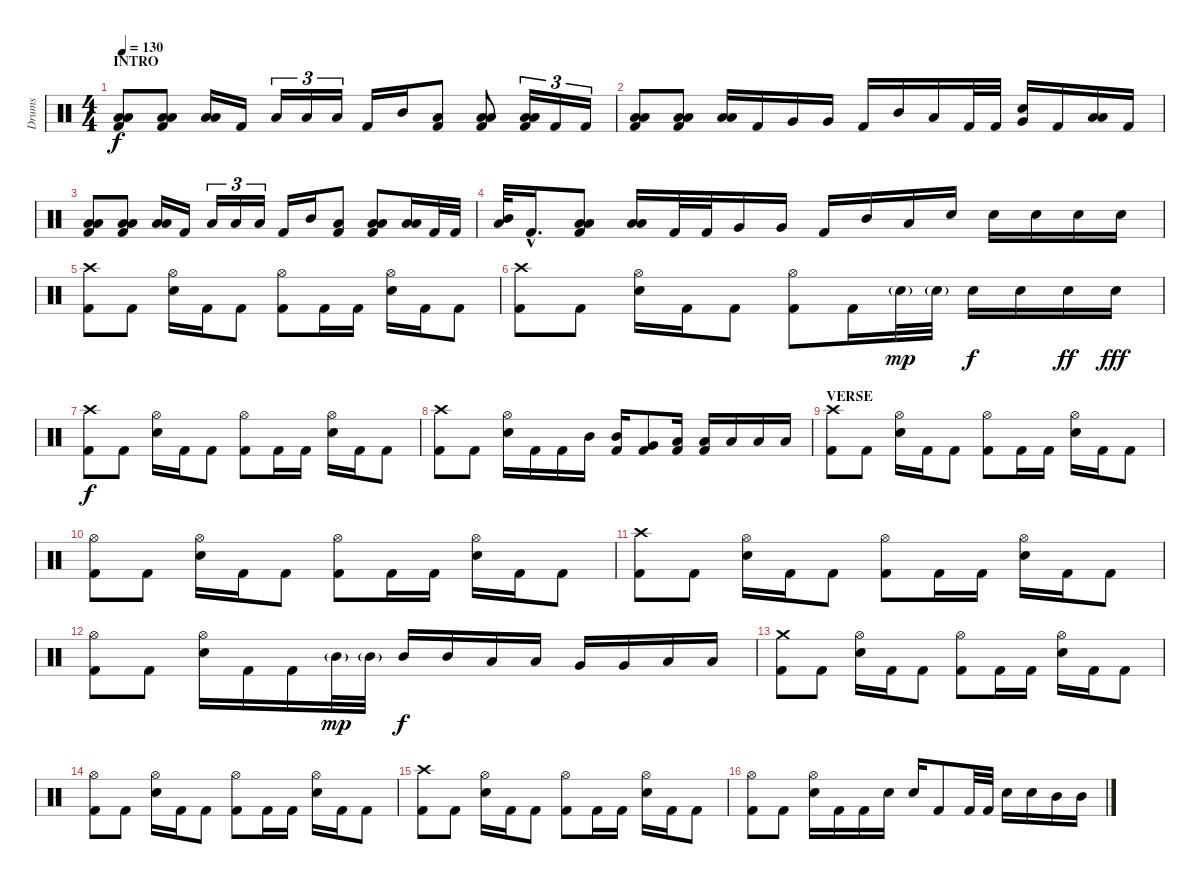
\track ("Drums" "Drums") {instrument percussion}
\staff {score}
\articulation defaults
\ts (4 4)
\section ("" "INTRO")
\tempo 130
\clef neutral
\ks c
("Low Floor Tom (hit)" "Low Tom (hit)" "Kick (hit) 2").8{dy f} ("Low Floor Tom (hit)" "Low Tom (hit)" "Kick (hit) 2").8 ("Low Floor Tom (hit)" "Low Tom (hit)").16 "Kick (hit) 2".16 "Low Tom (hit)".16{tu (3 2)} "Low Tom (hit)".16{tu (3 2)} "Low Tom (hit)".16{tu (3 2)} "Kick (hit) 2".16 "Mid Tom (hit)".16 ("Low Tom (hit)" "Kick (hit) 2").8 ("Low Floor Tom (hit)" "Low Tom (hit)" "Kick (hit) 2").8 ("Low Floor Tom (hit)" "Low Tom (hit)" "Kick (hit) 2").16{tu (3 2)} "Kick (hit) 2".16{tu (3 2)} "Kick (hit) 2".16{tu (3 2)} |
("Low Floor Tom (hit)" "Low Tom (hit)" "Kick (hit) 2").8 ("Low Floor Tom (hit)" "Low Tom (hit)" "Kick (hit) 2").8 ("Low Floor Tom (hit)" "Low Tom (hit)").16 "Kick (hit) 2".16 "Very Low Tom (hit)".16 "Very Low Tom (hit)".16 "Kick (hit) 2".16 "Mid Tom (hit)".16 "Low Tom (hit)".16 "Kick (hit) 2".32 "Kick (hit) 2".32 ("Very Low Tom (hit)" "Electric Snare (hit)").16 "Kick (hit) 2".16 ("Low Floor Tom (hit)" "Low Tom (hit)").16 "Kick (hit) 2".16 |
("Low Floor Tom (hit)" "Low Tom (hit)" "Kick (hit) 2").8 ("Low Floor Tom (hit)" "Low Tom (hit)" "Kick (hit) 2").8 ("Low Floor Tom (hit)" "Low Tom (hit)").16 "Kick (hit) 2".16 "Low Tom (hit)".16{tu (3 2)} "Low Tom (hit)".16{tu (3 2)} "Low Tom (hit)".16{tu (3 2)} "Kick (hit) 2".16 "Mid Tom (hit)".16 ("Low Tom (hit)" "Kick (hit) 2").8 ("Low Floor Tom (hit)" "Low Tom (hit)" "Kick (hit) 2").8 ("Low Floor Tom (hit)" "Low Tom (hit)").16 "Kick (hit) 2".32 "Kick (hit) 2".32 |
("Low Tom (hit)" "Mid Tom (hit)").32{bd 120} "Kick (hit) 2"{hac}.16{d} ("Low Floor Tom (hit)" "Low Tom (hit)" "Kick (hit) 2").8 ("Low Floor Tom (hit)" "Low Tom (hit)").16 "Kick (hit) 2".32 "Kick (hit) 2".32 "Very Low Tom (hit)".16 "Very Low Tom (hit)".16 "Kick (hit) 2".16 "Mid Tom (hit)".16 "Low Tom (hit)".16 "Electric Snare (hit)".16 "Electric Snare (hit)".16 "Electric Snare (hit)".16 "Electric Snare (hit)".16 "Electric Snare (hit)".16 |
("Crash high (hit)" "Kick (hit) 2").8 "Kick (hit) 2".8 ("Hi-Hat (open)" "Electric Snare (hit)").16 "Kick (hit) 2".16 "Kick (hit) 2".8 ("Hi-Hat (open)" "Kick (hit) 2").8 "Kick (hit) 2".16 "Kick (hit) 2".16 ("Hi-Hat (open)" "Electric Snare (hit)").16 "Kick (hit) 2".16 "Kick (hit) 2".8 |
("Crash high (hit)" "Kick (hit) 2").8 "Kick (hit) 2".8 ("Hi-Hat (open)" "Electric Snare (hit)").16 "Kick (hit) 2".16 "Kick (hit) 2".8 ("Hi-Hat (open)" "Kick (hit) 2").8 "Kick (hit) 2".16 "Electric Snare (hit)"{g}.32{dy mp} "Electric Snare (hit)"{g}.32 "Electric Snare (hit)".16{dy f} "Electric Snare (hit)".16 "Electric Snare (hit)".16{dy ff} "Electric Snare (hit)".16{dy fff} |
("Crash high (hit)" "Kick (hit) 2").8{dy f} "Kick (hit) 2".8 ("Hi-Hat (open)" "Electric Snare (hit)").16 "Kick (hit) 2".16 "Kick (hit) 2".8 ("Hi-Hat (open)" "Kick (hit) 2").8 "Kick (hit) 2".16 "Kick (hit) 2".16 ("Hi-Hat (open)" "Electric Snare (hit)").16 "Kick (hit) 2".16 "Kick (hit) 2".8 |
("Crash high (hit)" "Kick (hit) 2").8 "Kick (hit) 2".8 ("Hi-Hat (open)" "Electric Snare (hit)").16 "Kick (hit) 2".16 "Kick (hit) 2".16 "Mid Tom (hit)".16 ("Mid Tom (hit)" "Kick (hit) 2").16 ("Very Low Tom (hit)" "Kick (hit) 2").8 ("Low Tom (hit)" "Kick (hit) 2").16 ("Low Floor Tom (hit)" "Kick (hit) 2").16 "Low Floor Tom (hit)".16 "Low Floor Tom (hit)".16 "Low Floor Tom (hit)".16 |
\section ("" "VERSE")
("Crash high (hit)" "Kick (hit) 2").8 "Kick (hit) 2".8 ("Hi-Hat (open)" "Electric Snare (hit)").16 "Kick (hit) 2".16 "Kick (hit) 2".8 ("Hi-Hat (open)" "Kick (hit) 2").8 "Kick (hit) 2".16 "Kick (hit) 2".16 ("Hi-Hat (open)" "Electric Snare (hit)").16 "Kick (hit) 2".16 "Kick (hit) 2".8 |
("Hi-Hat (open)" "Kick (hit) 2").8 "Kick (hit) 2".8 ("Hi-Hat (open)" "Electric Snare (hit)").16 "Kick (hit) 2".16 "Kick (hit) 2".8 ("Hi-Hat (open)" "Kick (hit) 2").8 "Kick (hit) 2".16 "Kick (hit) 2".16 ("Hi-Hat (open)" "Electric Snare (hit)").16 "Kick (hit) 2".16 "Kick (hit) 2".8 |
("Crash high (hit)" "Kick (hit) 2").8 "Kick (hit) 2".8 ("Hi-Hat (open)" "Electric Snare (hit)").16 "Kick (hit) 2".16 "Kick (hit) 2".8 ("Hi-Hat (open)" "Kick (hit) 2").8 "Kick (hit) 2".16 "Kick (hit) 2".16 ("Hi-Hat (open)" "Electric Snare (hit)").16 "Kick (hit) 2".16 "Kick (hit) 2".8 |
("Hi-Hat (open)" "Kick (hit) 2").8 "Kick (hit) 2".8 ("Hi-Hat (open)" "Electric Snare (hit)").16 "Kick (hit) 2".16 "Kick (hit) 2".16 "Mid Tom (hit)"{g}.32{dy mp} "Mid Tom (hit)"{g}.32 "Mid Tom (hit)".16{dy f} "Mid Tom (hit)".16 "Low Tom (hit)".16 "Low Tom (hit)".16 "Very Low Tom (hit)".16 "Very Low Tom (hit)".16 "Low Floor Tom (hit)".16 "Low Floor Tom (hit)".16 |
("Crash medium (hit)" "Kick (hit) 2").8 "Kick (hit) 2".8 ("Hi-Hat (open)" "Electric Snare (hit)").16 "Kick (hit) 2".16 "Kick (hit) 2".8 ("Hi-Hat (open)" "Kick (hit) 2").8 "Kick (hit) 2".16 "Kick (hit) 2".16 ("Hi-Hat (open)" "Electric Snare (hit)").16 "Kick (hit) 2".16 "Kick (hit) 2".8 |
("Hi-Hat (open)" "Kick (hit) 2").8 "Kick (hit) 2".8 ("Hi-Hat (open)" "Electric Snare (hit)").16 "Kick (hit) 2".16 "Kick (hit) 2".8 ("Hi-Hat (open)" "Kick (hit) 2").8 "Kick (hit) 2".16 "Kick (hit) 2".16 ("Hi-Hat (open)" "Electric Snare (hit)").16 "Kick (hit) 2".16 "Kick (hit) 2".8 |
("Crash high (hit)" "Kick (hit) 2").8 "Kick (hit) 2".8 ("Hi-Hat (open)" "Electric Snare (hit)").16 "Kick (hit) 2".16 "Kick (hit) 2".8 ("Hi-Hat (open)" "Kick (hit) 2").8 "Kick (hit) 2".16 "Kick (hit) 2".16 ("Hi-Hat (open)" "Electric Snare (hit)").16 "Kick (hit) 2".16 "Kick (hit) 2".8 |
("Hi-Hat (open)" "Kick (hit) 2").8 "Kick (hit) 2".8 ("Hi-Hat (open)" "Electric Snare (hit)").16 "Kick (hit) 2".16 "Kick (hit) 2".16 "Electric Snare (hit)".16 "Electric Snare (hit)".16 "Kick (hit) 2".8 "Kick (hit) 2".32 "Kick (hit) 2".32 "Electric Snare (hit)".16 "Electric Snare (hit)".16 "Mid Tom (hit)".16 "Mid Tom (hit)".16
